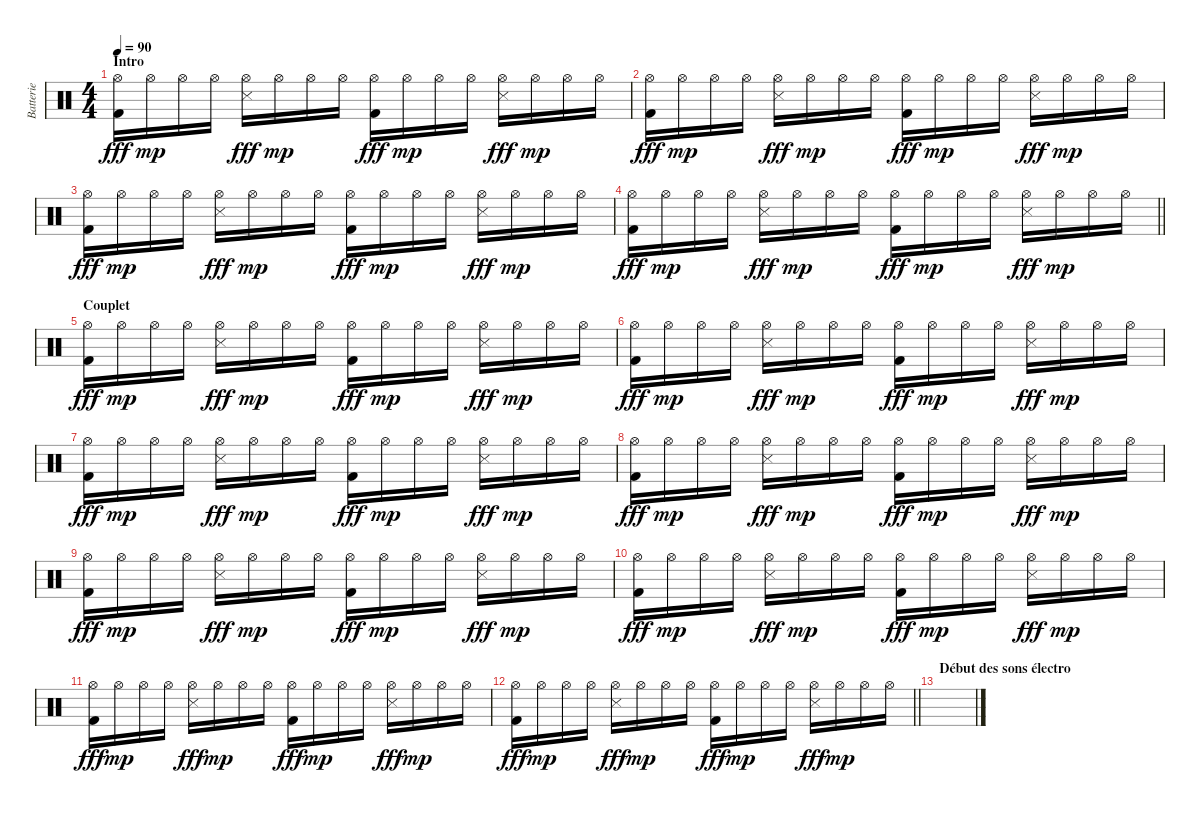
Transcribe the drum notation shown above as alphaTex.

\track ("Batterie" "Batterie") {instrument percussion}
\staff {score}
\articulation defaults
\ts (4 4)
\section ("" "Intro")
\tempo 90
\clef neutral
\ks c
("Hi-Hat (open)" "Kick (hit) 2").16{dy fff} "Hi-Hat (open)".16{dy mp} "Hi-Hat (open)".16 "Hi-Hat (open)".16 ("Hi-Hat (open)" "Snare (side stick) 3").16{dy fff} "Hi-Hat (open)".16{dy mp} "Hi-Hat (open)".16 "Hi-Hat (open)".16 ("Hi-Hat (open)" "Kick (hit) 2").16{dy fff} "Hi-Hat (open)".16{dy mp} "Hi-Hat (open)".16 "Hi-Hat (open)".16 ("Hi-Hat (open)" "Snare (side stick) 3").16{dy fff} "Hi-Hat (open)".16{dy mp} "Hi-Hat (open)".16 "Hi-Hat (open)".16 |
("Hi-Hat (open)" "Kick (hit) 2").16{dy fff} "Hi-Hat (open)".16{dy mp} "Hi-Hat (open)".16 "Hi-Hat (open)".16 ("Hi-Hat (open)" "Snare (side stick) 3").16{dy fff} "Hi-Hat (open)".16{dy mp} "Hi-Hat (open)".16 "Hi-Hat (open)".16 ("Hi-Hat (open)" "Kick (hit) 2").16{dy fff} "Hi-Hat (open)".16{dy mp} "Hi-Hat (open)".16 "Hi-Hat (open)".16 ("Hi-Hat (open)" "Snare (side stick) 3").16{dy fff} "Hi-Hat (open)".16{dy mp} "Hi-Hat (open)".16 "Hi-Hat (open)".16 |
("Hi-Hat (open)" "Kick (hit) 2").16{dy fff} "Hi-Hat (open)".16{dy mp} "Hi-Hat (open)".16 "Hi-Hat (open)".16 ("Hi-Hat (open)" "Snare (side stick) 3").16{dy fff} "Hi-Hat (open)".16{dy mp} "Hi-Hat (open)".16 "Hi-Hat (open)".16 ("Hi-Hat (open)" "Kick (hit) 2").16{dy fff} "Hi-Hat (open)".16{dy mp} "Hi-Hat (open)".16 "Hi-Hat (open)".16 ("Hi-Hat (open)" "Snare (side stick) 3").16{dy fff} "Hi-Hat (open)".16{dy mp} "Hi-Hat (open)".16 "Hi-Hat (open)".16 |
\barLineRight lightlight
("Hi-Hat (open)" "Kick (hit) 2").16{dy fff} "Hi-Hat (open)".16{dy mp} "Hi-Hat (open)".16 "Hi-Hat (open)".16 ("Hi-Hat (open)" "Snare (side stick) 3").16{dy fff} "Hi-Hat (open)".16{dy mp} "Hi-Hat (open)".16 "Hi-Hat (open)".16 ("Hi-Hat (open)" "Kick (hit) 2").16{dy fff} "Hi-Hat (open)".16{dy mp} "Hi-Hat (open)".16 "Hi-Hat (open)".16 ("Hi-Hat (open)" "Snare (side stick) 3").16{dy fff} "Hi-Hat (open)".16{dy mp} "Hi-Hat (open)".16 "Hi-Hat (open)".16 |
\section ("" "Couplet")
("Hi-Hat (open)" "Kick (hit) 2").16{dy fff} "Hi-Hat (open)".16{dy mp} "Hi-Hat (open)".16 "Hi-Hat (open)".16 ("Hi-Hat (open)" "Snare (side stick) 3").16{dy fff} "Hi-Hat (open)".16{dy mp} "Hi-Hat (open)".16 "Hi-Hat (open)".16 ("Hi-Hat (open)" "Kick (hit) 2").16{dy fff} "Hi-Hat (open)".16{dy mp} "Hi-Hat (open)".16 "Hi-Hat (open)".16 ("Hi-Hat (open)" "Snare (side stick) 3").16{dy fff} "Hi-Hat (open)".16{dy mp} "Hi-Hat (open)".16 "Hi-Hat (open)".16 |
("Hi-Hat (open)" "Kick (hit) 2").16{dy fff} "Hi-Hat (open)".16{dy mp} "Hi-Hat (open)".16 "Hi-Hat (open)".16 ("Hi-Hat (open)" "Snare (side stick) 3").16{dy fff} "Hi-Hat (open)".16{dy mp} "Hi-Hat (open)".16 "Hi-Hat (open)".16 ("Hi-Hat (open)" "Kick (hit) 2").16{dy fff} "Hi-Hat (open)".16{dy mp} "Hi-Hat (open)".16 "Hi-Hat (open)".16 ("Hi-Hat (open)" "Snare (side stick) 3").16{dy fff} "Hi-Hat (open)".16{dy mp} "Hi-Hat (open)".16 "Hi-Hat (open)".16 |
("Hi-Hat (open)" "Kick (hit) 2").16{dy fff} "Hi-Hat (open)".16{dy mp} "Hi-Hat (open)".16 "Hi-Hat (open)".16 ("Hi-Hat (open)" "Snare (side stick) 3").16{dy fff} "Hi-Hat (open)".16{dy mp} "Hi-Hat (open)".16 "Hi-Hat (open)".16 ("Hi-Hat (open)" "Kick (hit) 2").16{dy fff} "Hi-Hat (open)".16{dy mp} "Hi-Hat (open)".16 "Hi-Hat (open)".16 ("Hi-Hat (open)" "Snare (side stick) 3").16{dy fff} "Hi-Hat (open)".16{dy mp} "Hi-Hat (open)".16 "Hi-Hat (open)".16 |
("Hi-Hat (open)" "Kick (hit) 2").16{dy fff} "Hi-Hat (open)".16{dy mp} "Hi-Hat (open)".16 "Hi-Hat (open)".16 ("Hi-Hat (open)" "Snare (side stick) 3").16{dy fff} "Hi-Hat (open)".16{dy mp} "Hi-Hat (open)".16 "Hi-Hat (open)".16 ("Hi-Hat (open)" "Kick (hit) 2").16{dy fff} "Hi-Hat (open)".16{dy mp} "Hi-Hat (open)".16 "Hi-Hat (open)".16 ("Hi-Hat (open)" "Snare (side stick) 3").16{dy fff} "Hi-Hat (open)".16{dy mp} "Hi-Hat (open)".16 "Hi-Hat (open)".16 |
("Hi-Hat (open)" "Kick (hit) 2").16{dy fff} "Hi-Hat (open)".16{dy mp} "Hi-Hat (open)".16 "Hi-Hat (open)".16 ("Hi-Hat (open)" "Snare (side stick) 3").16{dy fff} "Hi-Hat (open)".16{dy mp} "Hi-Hat (open)".16 "Hi-Hat (open)".16 ("Hi-Hat (open)" "Kick (hit) 2").16{dy fff} "Hi-Hat (open)".16{dy mp} "Hi-Hat (open)".16 "Hi-Hat (open)".16 ("Hi-Hat (open)" "Snare (side stick) 3").16{dy fff} "Hi-Hat (open)".16{dy mp} "Hi-Hat (open)".16 "Hi-Hat (open)".16 |
("Hi-Hat (open)" "Kick (hit) 2").16{dy fff} "Hi-Hat (open)".16{dy mp} "Hi-Hat (open)".16 "Hi-Hat (open)".16 ("Hi-Hat (open)" "Snare (side stick) 3").16{dy fff} "Hi-Hat (open)".16{dy mp} "Hi-Hat (open)".16 "Hi-Hat (open)".16 ("Hi-Hat (open)" "Kick (hit) 2").16{dy fff} "Hi-Hat (open)".16{dy mp} "Hi-Hat (open)".16 "Hi-Hat (open)".16 ("Hi-Hat (open)" "Snare (side stick) 3").16{dy fff} "Hi-Hat (open)".16{dy mp} "Hi-Hat (open)".16 "Hi-Hat (open)".16 |
("Hi-Hat (open)" "Kick (hit) 2").16{dy fff} "Hi-Hat (open)".16{dy mp} "Hi-Hat (open)".16 "Hi-Hat (open)".16 ("Hi-Hat (open)" "Snare (side stick) 3").16{dy fff} "Hi-Hat (open)".16{dy mp} "Hi-Hat (open)".16 "Hi-Hat (open)".16 ("Hi-Hat (open)" "Kick (hit) 2").16{dy fff} "Hi-Hat (open)".16{dy mp} "Hi-Hat (open)".16 "Hi-Hat (open)".16 ("Hi-Hat (open)" "Snare (side stick) 3").16{dy fff} "Hi-Hat (open)".16{dy mp} "Hi-Hat (open)".16 "Hi-Hat (open)".16 |
\barLineRight lightlight
("Hi-Hat (open)" "Kick (hit) 2").16{dy fff} "Hi-Hat (open)".16{dy mp} "Hi-Hat (open)".16 "Hi-Hat (open)".16 ("Hi-Hat (open)" "Snare (side stick) 3").16{dy fff} "Hi-Hat (open)".16{dy mp} "Hi-Hat (open)".16 "Hi-Hat (open)".16 ("Hi-Hat (open)" "Kick (hit) 2").16{dy fff} "Hi-Hat (open)".16{dy mp} "Hi-Hat (open)".16 "Hi-Hat (open)".16 ("Hi-Hat (open)" "Snare (side stick) 3").16{dy fff} "Hi-Hat (open)".16{dy mp} "Hi-Hat (open)".16 "Hi-Hat (open)".16 |
\section ("" "Début des sons électro")
